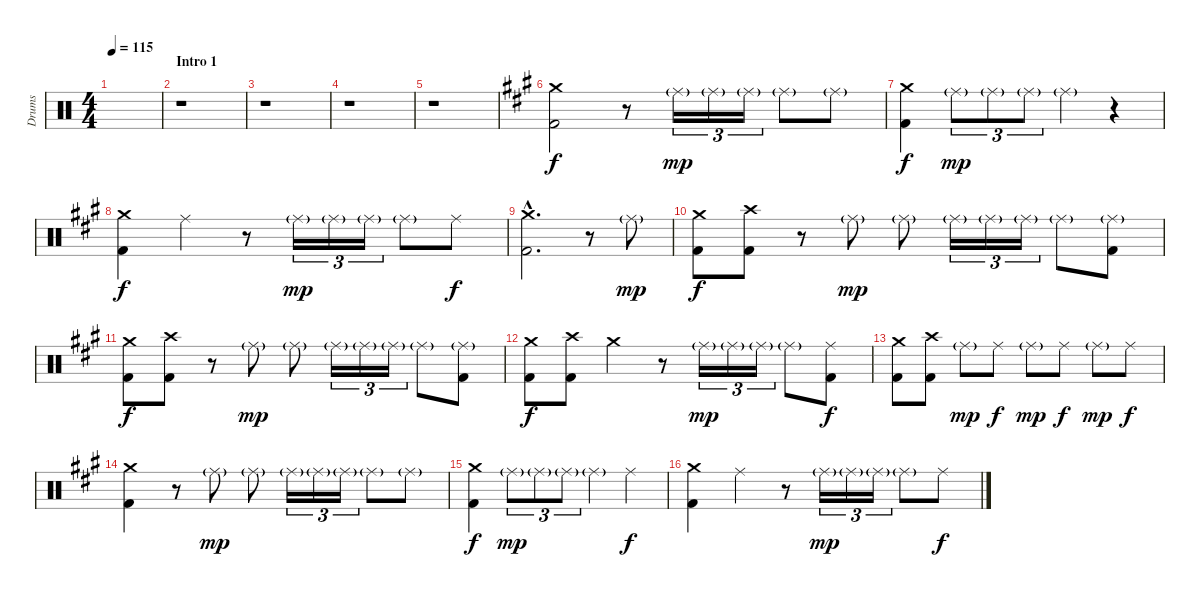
\track ("Drums" "Drums") {instrument percussion}
\staff {score}
\articulation defaults
\ts (4 4)
\tempo 115
\clef neutral
\ks c
|
\section ("" "Intro 1")
r.1 |
r.1 |
r.1 |
r.1 |
\ks a
("Crash medium (hit)" "Kick (hit) 2").2{volume 15} r.8 "Ride (middle)"{g}.16{tu (3 2) dy mp} "Ride (middle)"{g}.16{tu (3 2)} "Ride (middle)"{g}.16{tu (3 2)} "Ride (middle)"{g}.8 "Ride (middle)"{g}.8 |
("Crash medium (hit)" "Kick (hit) 2").4{dy f} "Ride (middle)"{g}.8{tu (3 2) dy mp} "Ride (middle)"{g}.8{tu (3 2)} "Ride (middle)"{g}.8{tu (3 2)} "Ride (middle)"{g}.4 r.4 |
("Crash medium (hit)" "Kick (hit) 2").4{dy f} "Ride (middle)".4 r.8 "Ride (middle)"{g}.16{tu (3 2) dy mp} "Ride (middle)"{g}.16{tu (3 2)} "Ride (middle)"{g}.16{tu (3 2)} "Ride (middle)"{g}.8 "Ride (middle)".8{dy f} |
("Crash medium (hit)"{hac} "Kick (hit) 2"{hac}).2{d} r.8 "Ride (middle)"{g}.8{dy mp} |
("Crash medium (hit)" "Kick (hit) 2").8{dy f} ("Crash high (hit)" "Kick (hit) 2").8 r.8 "Ride (middle)"{g}.8{dy mp} "Ride (middle)"{g}.8 "Ride (middle)"{g}.16{tu (3 2)} "Ride (middle)"{g}.16{tu (3 2)} "Ride (middle)"{g}.16{tu (3 2)} "Ride (middle)"{g}.8 ("Ride (middle)"{g} "Kick (hit) 2").8 |
("Crash medium (hit)" "Kick (hit) 2").8{dy f} ("Crash high (hit)" "Kick (hit) 2").8 r.8 "Ride (middle)"{g}.8{dy mp} "Ride (middle)"{g}.8 "Ride (middle)"{g}.16{tu (3 2)} "Ride (middle)"{g}.16{tu (3 2)} "Ride (middle)"{g}.16{tu (3 2)} "Ride (middle)"{g}.8 ("Ride (middle)"{g} "Kick (hit) 2").8 |
("Crash medium (hit)" "Kick (hit) 2").8{dy f} ("Crash high (hit)" "Kick (hit) 2").8 "Crash medium (hit)".4 r.8 "Ride (middle)"{g}.16{tu (3 2) dy mp} "Ride (middle)"{g}.16{tu (3 2)} "Ride (middle)"{g}.16{tu (3 2)} "Ride (middle)"{g}.8 ("Ride (middle)" "Kick (hit) 2").8{dy f} |
("Crash medium (hit)" "Kick (hit) 2").8 ("Crash high (hit)" "Kick (hit) 2").8 "Ride (middle)"{g}.8{dy mp} "Ride (middle)".8{dy f} "Ride (middle)"{g}.8{dy mp} "Ride (middle)".8{dy f} "Ride (middle)"{g}.8{dy mp} "Ride (middle)".8{dy f} |
("Crash medium (hit)" "Kick (hit) 2").4 r.8 "Ride (middle)"{g}.8{dy mp} "Ride (middle)"{g}.8 "Ride (middle)"{g}.16{tu (3 2)} "Ride (middle)"{g}.16{tu (3 2)} "Ride (middle)"{g}.16{tu (3 2)} "Ride (middle)"{g}.8 "Ride (middle)"{g}.8 |
("Crash medium (hit)" "Kick (hit) 2").4{dy f} "Ride (middle)"{g}.8{tu (3 2) dy mp} "Ride (middle)"{g}.8{tu (3 2)} "Ride (middle)"{g}.8{tu (3 2)} "Ride (middle)"{g}.4 "Ride (middle)".4{dy f} |
("Crash medium (hit)" "Kick (hit) 2").4 "Ride (middle)".4 r.8 "Ride (middle)"{g}.16{tu (3 2) dy mp} "Ride (middle)"{g}.16{tu (3 2)} "Ride (middle)"{g}.16{tu (3 2)} "Ride (middle)"{g}.8 "Ride (middle)".8{dy f}
